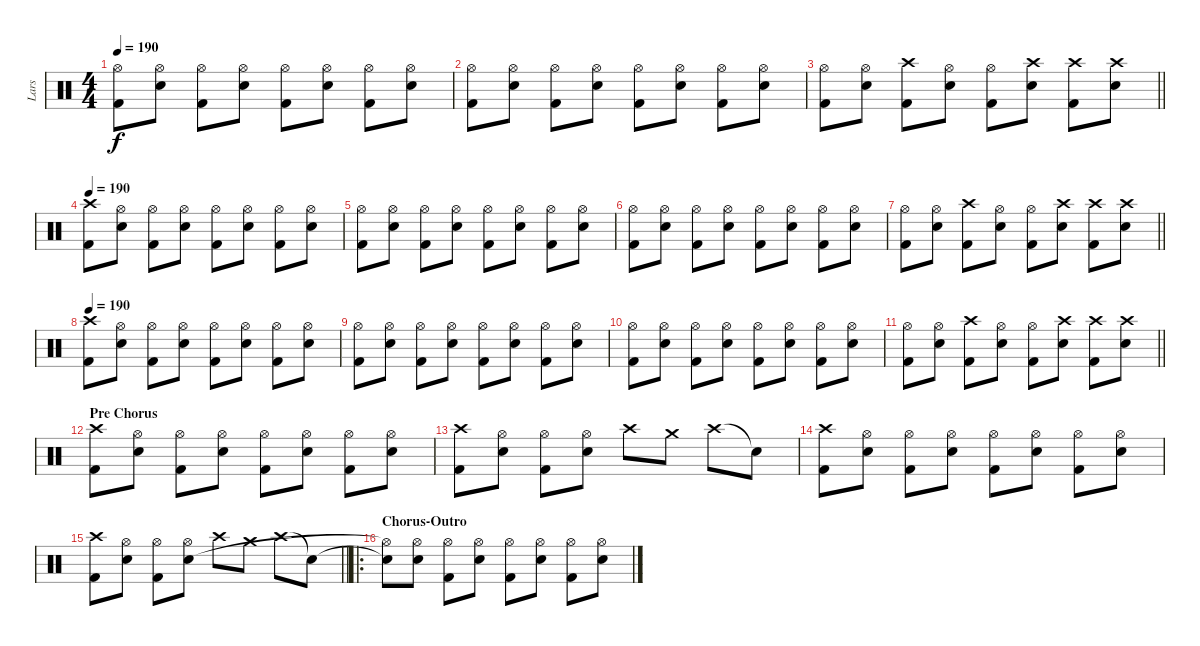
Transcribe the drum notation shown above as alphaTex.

\track ("Lars" "Lars") {instrument percussion}
\staff {score}
\articulation defaults
\ts (4 4)
\tempo 190
\clef neutral
\ks c
("Hi-Hat (open)" "Kick (hit) 2").8{dy f} ("Hi-Hat (open)" "Snare (hit) 2").8 ("Hi-Hat (open)" "Kick (hit) 2").8 ("Hi-Hat (open)" "Snare (hit) 2").8 ("Hi-Hat (open)" "Kick (hit) 2").8 ("Hi-Hat (open)" "Snare (hit) 2").8 ("Hi-Hat (open)" "Kick (hit) 2").8 ("Hi-Hat (open)" "Snare (hit) 2").8 |
("Hi-Hat (open)" "Kick (hit) 2").8 ("Hi-Hat (open)" "Snare (hit) 2").8 ("Hi-Hat (open)" "Kick (hit) 2").8 ("Hi-Hat (open)" "Snare (hit) 2").8 ("Hi-Hat (open)" "Kick (hit) 2").8 ("Hi-Hat (open)" "Snare (hit) 2").8 ("Hi-Hat (open)" "Kick (hit) 2").8 ("Hi-Hat (open)" "Snare (hit) 2").8 |
\barLineRight lightlight
("Hi-Hat (open)" "Kick (hit) 2").8 ("Hi-Hat (open)" "Snare (hit) 2").8 ("Crash high (hit)" "Kick (hit) 2").8 ("Hi-Hat (open)" "Snare (hit) 2").8 ("Hi-Hat (open)" "Kick (hit) 2").8 ("Crash high (hit)" "Snare (hit) 2").8 ("Crash high (hit)" "Kick (hit) 2").8 ("Crash high (hit)" "Snare (hit) 2").8 |
\tempo 190
("Crash high (hit)" "Kick (hit) 2").8 ("Hi-Hat (open)" "Snare (hit) 2").8 ("Hi-Hat (open)" "Kick (hit) 2").8 ("Hi-Hat (open)" "Snare (hit) 2").8 ("Hi-Hat (open)" "Kick (hit) 2").8 ("Hi-Hat (open)" "Snare (hit) 2").8 ("Hi-Hat (open)" "Kick (hit) 2").8 ("Hi-Hat (open)" "Snare (hit) 2").8 |
("Hi-Hat (open)" "Kick (hit) 2").8 ("Hi-Hat (open)" "Snare (hit) 2").8 ("Hi-Hat (open)" "Kick (hit) 2").8 ("Hi-Hat (open)" "Snare (hit) 2").8 ("Hi-Hat (open)" "Kick (hit) 2").8 ("Hi-Hat (open)" "Snare (hit) 2").8 ("Hi-Hat (open)" "Kick (hit) 2").8 ("Hi-Hat (open)" "Snare (hit) 2").8 |
("Hi-Hat (open)" "Kick (hit) 2").8 ("Hi-Hat (open)" "Snare (hit) 2").8 ("Hi-Hat (open)" "Kick (hit) 2").8 ("Hi-Hat (open)" "Snare (hit) 2").8 ("Hi-Hat (open)" "Kick (hit) 2").8 ("Hi-Hat (open)" "Snare (hit) 2").8 ("Hi-Hat (open)" "Kick (hit) 2").8 ("Hi-Hat (open)" "Snare (hit) 2").8 |
\barLineRight lightlight
("Hi-Hat (open)" "Kick (hit) 2").8 ("Hi-Hat (open)" "Snare (hit) 2").8 ("Crash high (hit)" "Kick (hit) 2").8 ("Hi-Hat (open)" "Snare (hit) 2").8 ("Hi-Hat (open)" "Kick (hit) 2").8 ("Crash high (hit)" "Snare (hit) 2").8 ("Crash high (hit)" "Kick (hit) 2").8 ("Crash high (hit)" "Snare (hit) 2").8 |
\tempo 190
("Crash high (hit)" "Kick (hit) 2").8 ("Hi-Hat (open)" "Snare (hit) 2").8 ("Hi-Hat (open)" "Kick (hit) 2").8 ("Hi-Hat (open)" "Snare (hit) 2").8 ("Hi-Hat (open)" "Kick (hit) 2").8 ("Hi-Hat (open)" "Snare (hit) 2").8 ("Hi-Hat (open)" "Kick (hit) 2").8 ("Hi-Hat (open)" "Snare (hit) 2").8 |
("Hi-Hat (open)" "Kick (hit) 2").8 ("Hi-Hat (open)" "Snare (hit) 2").8 ("Hi-Hat (open)" "Kick (hit) 2").8 ("Hi-Hat (open)" "Snare (hit) 2").8 ("Hi-Hat (open)" "Kick (hit) 2").8 ("Hi-Hat (open)" "Snare (hit) 2").8 ("Hi-Hat (open)" "Kick (hit) 2").8 ("Hi-Hat (open)" "Snare (hit) 2").8 |
("Hi-Hat (open)" "Kick (hit) 2").8 ("Hi-Hat (open)" "Snare (hit) 2").8 ("Hi-Hat (open)" "Kick (hit) 2").8 ("Hi-Hat (open)" "Snare (hit) 2").8 ("Hi-Hat (open)" "Kick (hit) 2").8 ("Hi-Hat (open)" "Snare (hit) 2").8 ("Hi-Hat (open)" "Kick (hit) 2").8 ("Hi-Hat (open)" "Snare (hit) 2").8 |
\barLineRight lightlight
("Hi-Hat (open)" "Kick (hit) 2").8 ("Hi-Hat (open)" "Snare (hit) 2").8 ("Crash high (hit)" "Kick (hit) 2").8 ("Hi-Hat (open)" "Snare (hit) 2").8 ("Hi-Hat (open)" "Kick (hit) 2").8 ("Crash high (hit)" "Snare (hit) 2").8 ("Crash high (hit)" "Kick (hit) 2").8 ("Crash high (hit)" "Snare (hit) 2").8 |
\section ("" "Pre Chorus")
("Crash high (hit)" "Kick (hit) 2").8 ("Hi-Hat (open)" "Snare (hit) 2").8 ("Hi-Hat (open)" "Kick (hit) 2").8 ("Hi-Hat (open)" "Snare (hit) 2").8 ("Hi-Hat (open)" "Kick (hit) 2").8 ("Hi-Hat (open)" "Snare (hit) 2").8 ("Hi-Hat (open)" "Kick (hit) 2").8 ("Hi-Hat (open)" "Snare (hit) 2").8 |
("Crash high (hit)" "Kick (hit) 2").8 ("Hi-Hat (open)" "Snare (hit) 2").8 ("Hi-Hat (open)" "Kick (hit) 2").8 ("Hi-Hat (open)" "Snare (hit) 2").8 "Crash high (hit)".8 "Crash medium (hit)".8 "Crash high (hit)".8 "Snare (hit)"{t}.8 |
("Crash high (hit)" "Kick (hit) 2").8 ("Hi-Hat (open)" "Snare (hit) 2").8 ("Hi-Hat (open)" "Kick (hit) 2").8 ("Hi-Hat (open)" "Snare (hit) 2").8 ("Hi-Hat (open)" "Kick (hit) 2").8 ("Hi-Hat (open)" "Snare (hit) 2").8 ("Hi-Hat (open)" "Kick (hit) 2").8 ("Hi-Hat (open)" "Snare (hit) 2").8 |
\barLineRight lightlight
("Crash high (hit)" "Kick (hit) 2").8 ("Hi-Hat (open)" "Snare (hit) 2").8 ("Hi-Hat (open)" "Kick (hit) 2").8 ("Hi-Hat (open)" "Snare (hit) 2").8 "Crash high (hit)".8 "Crash medium (hit)".8 "Crash high (hit)".8 "Snare (hit)"{t}.8 |
\ro
\section ("" "Chorus-Outro")
("Snare (hit)"{t} "Hi-Hat (open)"{t}).8 ("Hi-Hat (open)" "Snare (hit) 2").8 ("Hi-Hat (open)" "Kick (hit) 2").8 ("Hi-Hat (open)" "Snare (hit) 2").8 ("Hi-Hat (open)" "Kick (hit) 2").8 ("Hi-Hat (open)" "Snare (hit) 2").8 ("Hi-Hat (open)" "Kick (hit) 2").8 ("Hi-Hat (open)" "Snare (hit) 2").8
